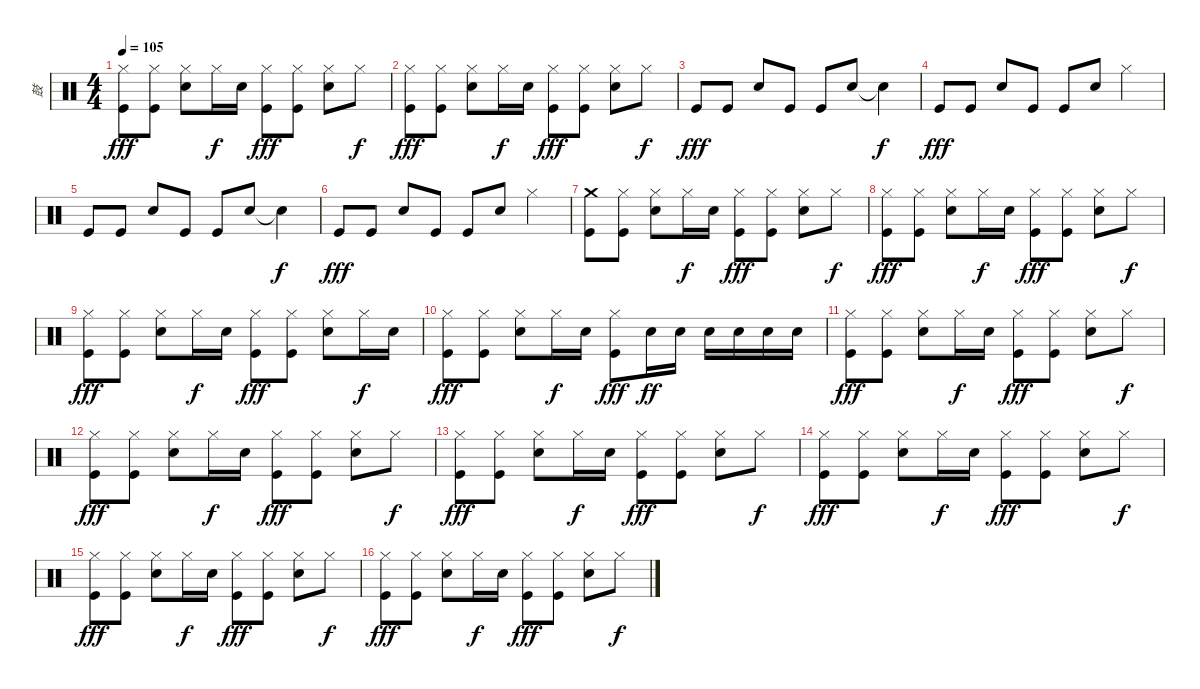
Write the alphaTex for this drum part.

\track ("鼓" "鼓") {instrument percussion}
\staff {score}
\articulation defaults
\ts (4 4)
\tempo 105
\clef neutral
\ks c
("Hi-Hat (closed)" "Kick (hit)").8{dy fff} ("Hi-Hat (closed)" "Kick (hit)").8 ("Hi-Hat (closed)" "Electric Snare (hit)").8 "Hi-Hat (closed)".16{dy f} "Electric Snare (hit)".16 ("Hi-Hat (closed)" "Kick (hit)").8{dy fff} ("Hi-Hat (closed)" "Kick (hit)").8 ("Hi-Hat (closed)" "Electric Snare (hit)").8 "Hi-Hat (closed)".8{dy f} |
("Hi-Hat (closed)" "Kick (hit)").8{dy fff} ("Hi-Hat (closed)" "Kick (hit)").8 ("Hi-Hat (closed)" "Electric Snare (hit)").8 "Hi-Hat (closed)".16{dy f} "Electric Snare (hit)".16 ("Hi-Hat (closed)" "Kick (hit)").8{dy fff} ("Hi-Hat (closed)" "Kick (hit)").8 ("Hi-Hat (closed)" "Electric Snare (hit)").8 "Hi-Hat (closed)".8{dy f} |
"Kick (hit)".8{dy fff} "Kick (hit)".8 "Electric Snare (hit)".8 "Kick (hit)".8 "Kick (hit)".8 "Electric Snare (hit)".8 "Snare (hit)"{t}.4{dy f} |
"Kick (hit)".8{dy fff} "Kick (hit)".8 "Electric Snare (hit)".8 "Kick (hit)".8 "Kick (hit)".8 "Electric Snare (hit)".8 "Hi-Hat (closed)".4 |
"Kick (hit)".8 "Kick (hit)".8 "Electric Snare (hit)".8 "Kick (hit)".8 "Kick (hit)".8 "Electric Snare (hit)".8 "Snare (hit)"{t}.4{dy f} |
"Kick (hit)".8{dy fff} "Kick (hit)".8 "Electric Snare (hit)".8 "Kick (hit)".8 "Kick (hit)".8 "Electric Snare (hit)".8 "Hi-Hat (closed)".4 |
("Crash medium (hit)" "Kick (hit)").8 ("Hi-Hat (closed)" "Kick (hit)").8 ("Hi-Hat (closed)" "Electric Snare (hit)").8 "Hi-Hat (closed)".16{dy f} "Electric Snare (hit)".16 ("Hi-Hat (closed)" "Kick (hit)").8{dy fff} ("Hi-Hat (closed)" "Kick (hit)").8 ("Hi-Hat (closed)" "Electric Snare (hit)").8 "Hi-Hat (closed)".8{dy f} |
("Hi-Hat (closed)" "Kick (hit)").8{dy fff} ("Hi-Hat (closed)" "Kick (hit)").8 ("Hi-Hat (closed)" "Electric Snare (hit)").8 "Hi-Hat (closed)".16{dy f} "Electric Snare (hit)".16 ("Hi-Hat (closed)" "Kick (hit)").8{dy fff} ("Hi-Hat (closed)" "Kick (hit)").8 ("Hi-Hat (closed)" "Electric Snare (hit)").8 "Hi-Hat (closed)".8{dy f} |
("Hi-Hat (closed)" "Kick (hit)").8{dy fff} ("Hi-Hat (closed)" "Kick (hit)").8 ("Hi-Hat (closed)" "Electric Snare (hit)").8 "Hi-Hat (closed)".16{dy f} "Electric Snare (hit)".16 ("Hi-Hat (closed)" "Kick (hit)").8{dy fff} ("Hi-Hat (closed)" "Kick (hit)").8 ("Hi-Hat (closed)" "Electric Snare (hit)").8 "Hi-Hat (closed)".16{dy f} "Electric Snare (hit)".16 |
("Hi-Hat (closed)" "Kick (hit)").8{dy fff} ("Hi-Hat (closed)" "Kick (hit)").8 ("Hi-Hat (closed)" "Electric Snare (hit)").8 "Hi-Hat (closed)".16{dy f} "Electric Snare (hit)".16 ("Hi-Hat (closed)" "Kick (hit)").8{dy fff} "Electric Snare (hit)".16{dy ff} "Electric Snare (hit)".16 "Electric Snare (hit)".16 "Electric Snare (hit)".16 "Electric Snare (hit)".16 "Electric Snare (hit)".16 |
("Hi-Hat (closed)" "Kick (hit)").8{dy fff} ("Hi-Hat (closed)" "Kick (hit)").8 ("Hi-Hat (closed)" "Electric Snare (hit)").8 "Hi-Hat (closed)".16{dy f} "Electric Snare (hit)".16 ("Hi-Hat (closed)" "Kick (hit)").8{dy fff} ("Hi-Hat (closed)" "Kick (hit)").8 ("Hi-Hat (closed)" "Electric Snare (hit)").8 "Hi-Hat (closed)".8{dy f} |
("Hi-Hat (closed)" "Kick (hit)").8{dy fff} ("Hi-Hat (closed)" "Kick (hit)").8 ("Hi-Hat (closed)" "Electric Snare (hit)").8 "Hi-Hat (closed)".16{dy f} "Electric Snare (hit)".16 ("Hi-Hat (closed)" "Kick (hit)").8{dy fff} ("Hi-Hat (closed)" "Kick (hit)").8 ("Hi-Hat (closed)" "Electric Snare (hit)").8 "Hi-Hat (closed)".8{dy f} |
("Hi-Hat (closed)" "Kick (hit)").8{dy fff} ("Hi-Hat (closed)" "Kick (hit)").8 ("Hi-Hat (closed)" "Electric Snare (hit)").8 "Hi-Hat (closed)".16{dy f} "Electric Snare (hit)".16 ("Hi-Hat (closed)" "Kick (hit)").8{dy fff} ("Hi-Hat (closed)" "Kick (hit)").8 ("Hi-Hat (closed)" "Electric Snare (hit)").8 "Hi-Hat (closed)".8{dy f} |
("Hi-Hat (closed)" "Kick (hit)").8{dy fff} ("Hi-Hat (closed)" "Kick (hit)").8 ("Hi-Hat (closed)" "Electric Snare (hit)").8 "Hi-Hat (closed)".16{dy f} "Electric Snare (hit)".16 ("Hi-Hat (closed)" "Kick (hit)").8{dy fff} ("Hi-Hat (closed)" "Kick (hit)").8 ("Hi-Hat (closed)" "Electric Snare (hit)").8 "Hi-Hat (closed)".8{dy f} |
("Hi-Hat (closed)" "Kick (hit)").8{dy fff} ("Hi-Hat (closed)" "Kick (hit)").8 ("Hi-Hat (closed)" "Electric Snare (hit)").8 "Hi-Hat (closed)".16{dy f} "Electric Snare (hit)".16 ("Hi-Hat (closed)" "Kick (hit)").8{dy fff} ("Hi-Hat (closed)" "Kick (hit)").8 ("Hi-Hat (closed)" "Electric Snare (hit)").8 "Hi-Hat (closed)".8{dy f} |
("Hi-Hat (closed)" "Kick (hit)").8{dy fff} ("Hi-Hat (closed)" "Kick (hit)").8 ("Hi-Hat (closed)" "Electric Snare (hit)").8 "Hi-Hat (closed)".16{dy f} "Electric Snare (hit)".16 ("Hi-Hat (closed)" "Kick (hit)").8{dy fff} ("Hi-Hat (closed)" "Kick (hit)").8 ("Hi-Hat (closed)" "Electric Snare (hit)").8 "Hi-Hat (closed)".8{dy f}
